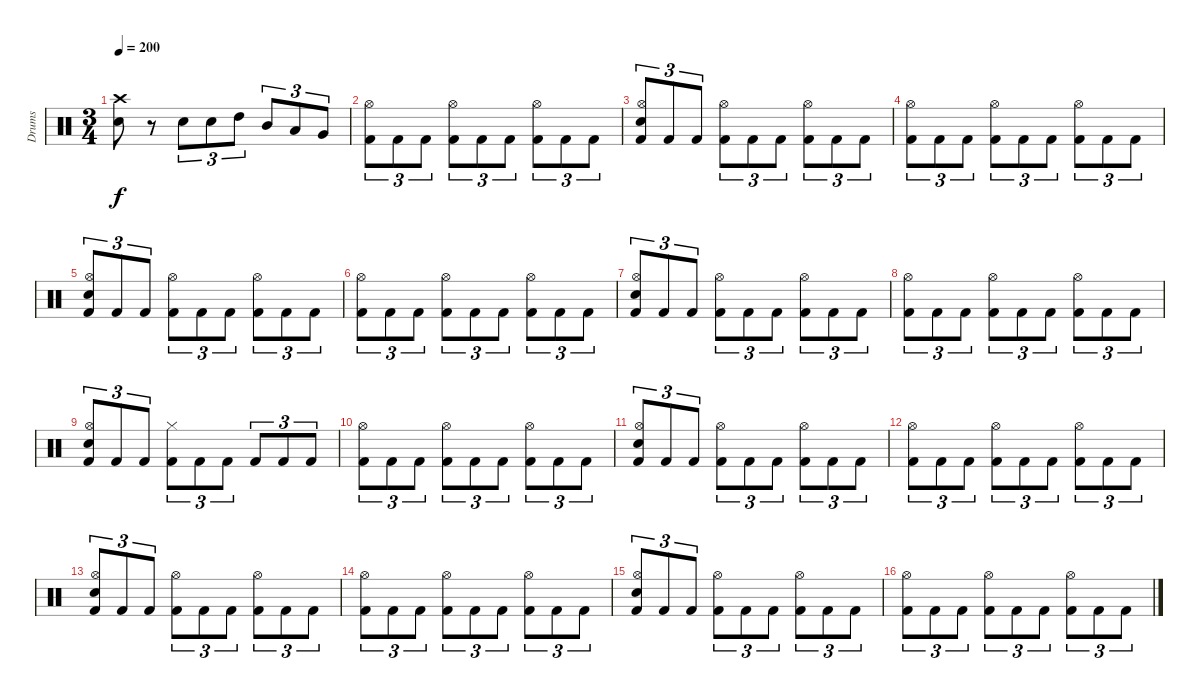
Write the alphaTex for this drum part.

\track ("Drums" "Drums") {instrument percussion}
\staff {score}
\articulation defaults
\ts (3 4)
\tempo 200
\clef neutral
\ks c
("Crash high (hit)" "Electric Snare (hit)").8{dy f} r.8 "Electric Snare (hit)".8{tu (3 2)} "Electric Snare (hit)".8{tu (3 2)} "High Tom (hit)".8{tu (3 2)} "Mid Tom (hit)".8{tu (3 2)} "Low Tom (hit)".8{tu (3 2)} "Very Low Tom (hit)".8{tu (3 2)} |
("Hi-Hat (open)" "Kick (hit) 2").8{tu (3 2)} "Kick (hit) 2".8{tu (3 2)} "Kick (hit) 2".8{tu (3 2)} ("Hi-Hat (open)" "Kick (hit) 2").8{tu (3 2)} "Kick (hit) 2".8{tu (3 2)} "Kick (hit) 2".8{tu (3 2)} ("Hi-Hat (open)" "Kick (hit) 2").8{tu (3 2)} "Kick (hit) 2".8{tu (3 2)} "Kick (hit) 2".8{tu (3 2)} |
("Hi-Hat (open)" "Electric Snare (hit)" "Kick (hit) 2").8{tu (3 2)} "Kick (hit) 2".8{tu (3 2)} "Kick (hit) 2".8{tu (3 2)} ("Hi-Hat (open)" "Kick (hit) 2").8{tu (3 2)} "Kick (hit) 2".8{tu (3 2)} "Kick (hit) 2".8{tu (3 2)} ("Hi-Hat (open)" "Kick (hit) 2").8{tu (3 2)} "Kick (hit) 2".8{tu (3 2)} "Kick (hit) 2".8{tu (3 2)} |
("Hi-Hat (open)" "Kick (hit) 2").8{tu (3 2)} "Kick (hit) 2".8{tu (3 2)} "Kick (hit) 2".8{tu (3 2)} ("Hi-Hat (open)" "Kick (hit) 2").8{tu (3 2)} "Kick (hit) 2".8{tu (3 2)} "Kick (hit) 2".8{tu (3 2)} ("Hi-Hat (open)" "Kick (hit) 2").8{tu (3 2)} "Kick (hit) 2".8{tu (3 2)} "Kick (hit) 2".8{tu (3 2)} |
("Hi-Hat (open)" "Electric Snare (hit)" "Kick (hit) 2").8{tu (3 2)} "Kick (hit) 2".8{tu (3 2)} "Kick (hit) 2".8{tu (3 2)} ("Hi-Hat (open)" "Kick (hit) 2").8{tu (3 2)} "Kick (hit) 2".8{tu (3 2)} "Kick (hit) 2".8{tu (3 2)} ("Hi-Hat (open)" "Kick (hit) 2").8{tu (3 2)} "Kick (hit) 2".8{tu (3 2)} "Kick (hit) 2".8{tu (3 2)} |
("Hi-Hat (open)" "Kick (hit) 2").8{tu (3 2)} "Kick (hit) 2".8{tu (3 2)} "Kick (hit) 2".8{tu (3 2)} ("Hi-Hat (open)" "Kick (hit) 2").8{tu (3 2)} "Kick (hit) 2".8{tu (3 2)} "Kick (hit) 2".8{tu (3 2)} ("Hi-Hat (open)" "Kick (hit) 2").8{tu (3 2)} "Kick (hit) 2".8{tu (3 2)} "Kick (hit) 2".8{tu (3 2)} |
("Hi-Hat (open)" "Electric Snare (hit)" "Kick (hit) 2").8{tu (3 2)} "Kick (hit) 2".8{tu (3 2)} "Kick (hit) 2".8{tu (3 2)} ("Hi-Hat (open)" "Kick (hit) 2").8{tu (3 2)} "Kick (hit) 2".8{tu (3 2)} "Kick (hit) 2".8{tu (3 2)} ("Hi-Hat (open)" "Kick (hit) 2").8{tu (3 2)} "Kick (hit) 2".8{tu (3 2)} "Kick (hit) 2".8{tu (3 2)} |
("Hi-Hat (open)" "Kick (hit) 2").8{tu (3 2)} "Kick (hit) 2".8{tu (3 2)} "Kick (hit) 2".8{tu (3 2)} ("Hi-Hat (open)" "Kick (hit) 2").8{tu (3 2)} "Kick (hit) 2".8{tu (3 2)} "Kick (hit) 2".8{tu (3 2)} ("Hi-Hat (open)" "Kick (hit) 2").8{tu (3 2)} "Kick (hit) 2".8{tu (3 2)} "Kick (hit) 2".8{tu (3 2)} |
("Hi-Hat (open)" "Electric Snare (hit)" "Kick (hit) 2").8{tu (3 2)} "Kick (hit) 2".8{tu (3 2)} "Kick (hit) 2".8{tu (3 2)} ("Hi-Hat (closed)" "Kick (hit) 2").8{tu (3 2)} "Kick (hit) 2".8{tu (3 2)} "Kick (hit) 2".8{tu (3 2)} "Kick (hit) 2".8{tu (3 2)} "Kick (hit) 2".8{tu (3 2)} "Kick (hit) 2".8{tu (3 2)} |
("Hi-Hat (open)" "Kick (hit) 2").8{tu (3 2)} "Kick (hit) 2".8{tu (3 2)} "Kick (hit) 2".8{tu (3 2)} ("Hi-Hat (open)" "Kick (hit) 2").8{tu (3 2)} "Kick (hit) 2".8{tu (3 2)} "Kick (hit) 2".8{tu (3 2)} ("Hi-Hat (open)" "Kick (hit) 2").8{tu (3 2)} "Kick (hit) 2".8{tu (3 2)} "Kick (hit) 2".8{tu (3 2)} |
("Hi-Hat (open)" "Electric Snare (hit)" "Kick (hit) 2").8{tu (3 2)} "Kick (hit) 2".8{tu (3 2)} "Kick (hit) 2".8{tu (3 2)} ("Hi-Hat (open)" "Kick (hit) 2").8{tu (3 2)} "Kick (hit) 2".8{tu (3 2)} "Kick (hit) 2".8{tu (3 2)} ("Hi-Hat (open)" "Kick (hit) 2").8{tu (3 2)} "Kick (hit) 2".8{tu (3 2)} "Kick (hit) 2".8{tu (3 2)} |
("Hi-Hat (open)" "Kick (hit) 2").8{tu (3 2)} "Kick (hit) 2".8{tu (3 2)} "Kick (hit) 2".8{tu (3 2)} ("Hi-Hat (open)" "Kick (hit) 2").8{tu (3 2)} "Kick (hit) 2".8{tu (3 2)} "Kick (hit) 2".8{tu (3 2)} ("Hi-Hat (open)" "Kick (hit) 2").8{tu (3 2)} "Kick (hit) 2".8{tu (3 2)} "Kick (hit) 2".8{tu (3 2)} |
("Hi-Hat (open)" "Electric Snare (hit)" "Kick (hit) 2").8{tu (3 2)} "Kick (hit) 2".8{tu (3 2)} "Kick (hit) 2".8{tu (3 2)} ("Hi-Hat (open)" "Kick (hit) 2").8{tu (3 2)} "Kick (hit) 2".8{tu (3 2)} "Kick (hit) 2".8{tu (3 2)} ("Hi-Hat (open)" "Kick (hit) 2").8{tu (3 2)} "Kick (hit) 2".8{tu (3 2)} "Kick (hit) 2".8{tu (3 2)} |
("Hi-Hat (open)" "Kick (hit) 2").8{tu (3 2)} "Kick (hit) 2".8{tu (3 2)} "Kick (hit) 2".8{tu (3 2)} ("Hi-Hat (open)" "Kick (hit) 2").8{tu (3 2)} "Kick (hit) 2".8{tu (3 2)} "Kick (hit) 2".8{tu (3 2)} ("Hi-Hat (open)" "Kick (hit) 2").8{tu (3 2)} "Kick (hit) 2".8{tu (3 2)} "Kick (hit) 2".8{tu (3 2)} |
("Hi-Hat (open)" "Electric Snare (hit)" "Kick (hit) 2").8{tu (3 2)} "Kick (hit) 2".8{tu (3 2)} "Kick (hit) 2".8{tu (3 2)} ("Hi-Hat (open)" "Kick (hit) 2").8{tu (3 2)} "Kick (hit) 2".8{tu (3 2)} "Kick (hit) 2".8{tu (3 2)} ("Hi-Hat (open)" "Kick (hit) 2").8{tu (3 2)} "Kick (hit) 2".8{tu (3 2)} "Kick (hit) 2".8{tu (3 2)} |
("Hi-Hat (open)" "Kick (hit) 2").8{tu (3 2)} "Kick (hit) 2".8{tu (3 2)} "Kick (hit) 2".8{tu (3 2)} ("Hi-Hat (open)" "Kick (hit) 2").8{tu (3 2)} "Kick (hit) 2".8{tu (3 2)} "Kick (hit) 2".8{tu (3 2)} ("Hi-Hat (open)" "Kick (hit) 2").8{tu (3 2)} "Kick (hit) 2".8{tu (3 2)} "Kick (hit) 2".8{tu (3 2)}
